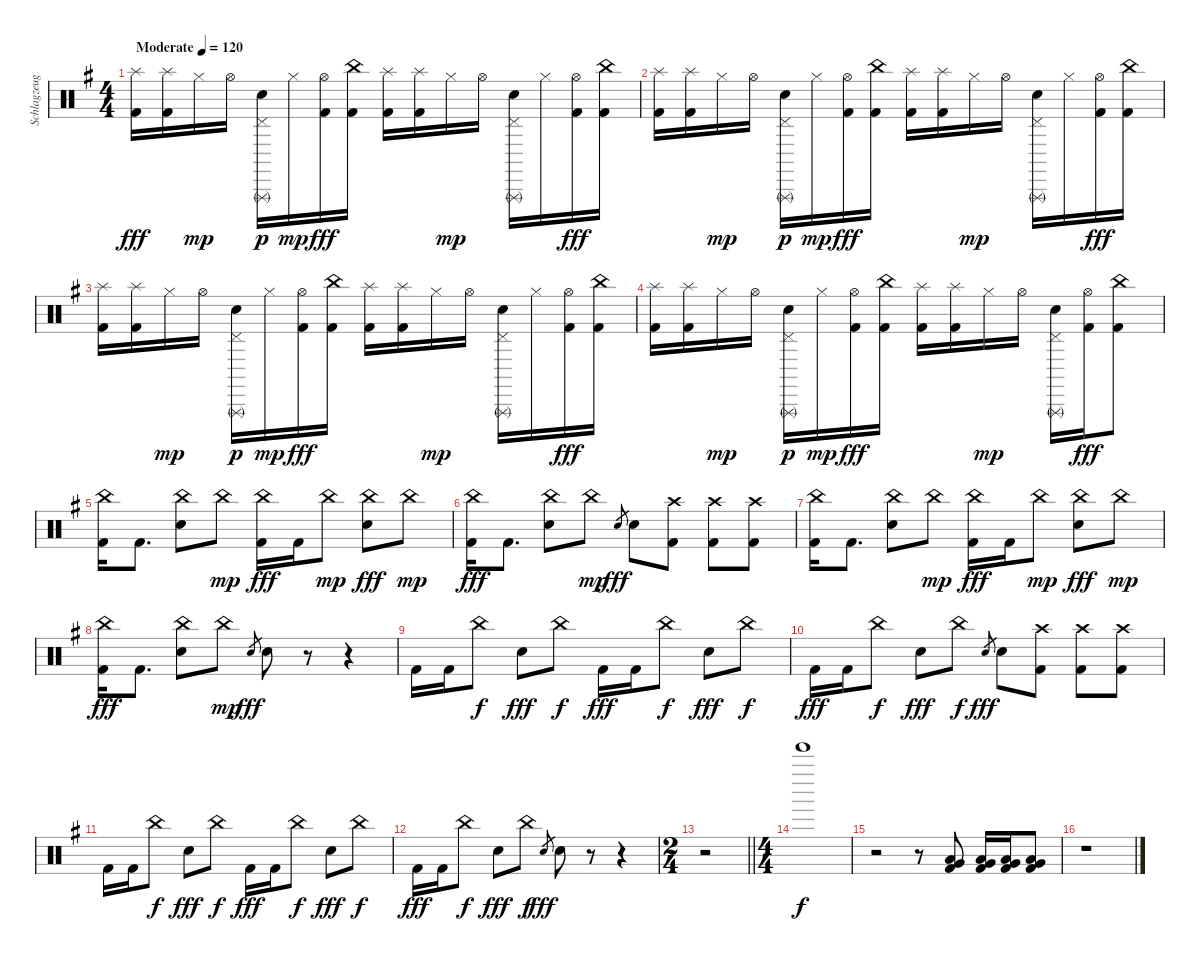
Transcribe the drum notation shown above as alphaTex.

\track ("Schlagzeug" "Schlagzeug") {instrument percussion}
\staff {score}
\articulation defaults
\ts (4 4)
\tempo (120 "Moderate")
\tempo 75
\tempo (120 "Moderate")
\clef neutral
\ks eminor
("Splash (hit)" "Kick (hit) 2").16{dy fff} ("Splash (hit)" "Kick (hit) 2").16 "Hi-Hat (closed)".16{dy mp} "Hi-Hat (open)".16 ("Pedal Hi-Hat (hit)" "Triangle (rnute)" "Electric Snare (hit)").16{dy p} "Hi-Hat (closed)".16{dy mp} ("Hi-Hat (open)" "Kick (hit) 2").16{dy fff} ("China (hit)" "Kick (hit) 2").16 ("Splash (hit)" "Kick (hit) 2").16 ("Splash (hit)" "Kick (hit) 2").16 "Hi-Hat (closed)".16{dy mp} "Hi-Hat (open)".16 ("Pedal Hi-Hat (hit)" "Triangle (rnute)" "Electric Snare (hit)").16 "Hi-Hat (closed)".16 ("Hi-Hat (open)" "Kick (hit) 2").16{dy fff} ("China (hit)" "Kick (hit) 2").16 |
("Splash (hit)" "Kick (hit) 2").16 ("Splash (hit)" "Kick (hit) 2").16 "Hi-Hat (closed)".16{dy mp} "Hi-Hat (open)".16 ("Pedal Hi-Hat (hit)" "Triangle (rnute)" "Electric Snare (hit)").16{dy p} "Hi-Hat (closed)".16{dy mp} ("Hi-Hat (open)" "Kick (hit) 2").16{dy fff} ("China (hit)" "Kick (hit) 2").16 ("Splash (hit)" "Kick (hit) 2").16 ("Splash (hit)" "Kick (hit) 2").16 "Hi-Hat (closed)".16{dy mp} "Hi-Hat (open)".16 ("Pedal Hi-Hat (hit)" "Triangle (rnute)" "Electric Snare (hit)").16 "Hi-Hat (closed)".16 ("Hi-Hat (open)" "Kick (hit) 2").16{dy fff} ("China (hit)" "Kick (hit) 2").16 |
("Splash (hit)" "Kick (hit) 2").16 ("Splash (hit)" "Kick (hit) 2").16 "Hi-Hat (closed)".16{dy mp} "Hi-Hat (open)".16 ("Pedal Hi-Hat (hit)" "Triangle (rnute)" "Electric Snare (hit)").16{dy p} "Hi-Hat (closed)".16{dy mp} ("Hi-Hat (open)" "Kick (hit) 2").16{dy fff} ("China (hit)" "Kick (hit) 2").16 ("Splash (hit)" "Kick (hit) 2").16 ("Splash (hit)" "Kick (hit) 2").16 "Hi-Hat (closed)".16{dy mp} "Hi-Hat (open)".16 ("Pedal Hi-Hat (hit)" "Triangle (rnute)" "Electric Snare (hit)").16 "Hi-Hat (closed)".16 ("Hi-Hat (open)" "Kick (hit) 2").16{dy fff} ("China (hit)" "Kick (hit) 2").16 |
("Splash (hit)" "Kick (hit) 2").16 ("Splash (hit)" "Kick (hit) 2").16 "Hi-Hat (closed)".16{dy mp} "Hi-Hat (open)".16 ("Pedal Hi-Hat (hit)" "Triangle (rnute)" "Electric Snare (hit)").16{dy p} "Hi-Hat (closed)".16{dy mp} ("Hi-Hat (open)" "Kick (hit) 2").16{dy fff} ("China (hit)" "Kick (hit) 2").16 ("Splash (hit)" "Kick (hit) 2").16 ("Splash (hit)" "Kick (hit) 2").16 "Hi-Hat (closed)".16{dy mp} "Hi-Hat (open)".16 ("Pedal Hi-Hat (hit)" "Triangle (rnute)" "Electric Snare (hit)").16 ("Hi-Hat (open)" "Kick (hit) 2").16{dy fff} ("China (hit)" "Kick (hit) 2").8 |
("China (hit)" "Kick (hit) 2").16 "Kick (hit) 2".8{d} ("China (hit)" "Snare (hit) 2").8 "China (hit)".8{dy mp} ("China (hit)" "Kick (hit) 2").16{dy fff} "Kick (hit) 2".16 "China (hit)".8{dy mp} ("China (hit)" "Snare (hit) 2").8{dy fff} "China (hit)".8{dy mp} |
("China (hit)" "Kick (hit) 2").16{dy fff} "Kick (hit) 2".8{d} ("China (hit)" "Snare (hit) 2").8 "China (hit)".8{dy mp} "Snare (hit) 2".8{gr dy fff} "Snare (hit) 2".8 ("Crash high (hit)" "Kick (hit) 2").8 ("Crash high (hit)" "Kick (hit) 2").8 ("Crash high (hit)" "Kick (hit) 2").8 |
("China (hit)" "Kick (hit) 2").16 "Kick (hit) 2".8{d} ("China (hit)" "Snare (hit) 2").8 "China (hit)".8{dy mp} ("China (hit)" "Kick (hit) 2").16{dy fff} "Kick (hit) 2".16 "China (hit)".8{dy mp} ("China (hit)" "Snare (hit) 2").8{dy fff} "China (hit)".8{dy mp} |
("China (hit)" "Kick (hit) 2").16{dy fff} "Kick (hit) 2".8{d} ("China (hit)" "Snare (hit) 2").8 "China (hit)".8{dy mp} "Snare (hit) 2".8{gr dy fff} "Snare (hit) 2".8 r.8 r.4 |
"Kick (hit) 2".16 "Kick (hit) 2".16 "China (hit)".8{dy f} "Snare (hit) 2".8{dy fff} "China (hit)".8{dy f} "Kick (hit) 2".16{dy fff} "Kick (hit) 2".16 "China (hit)".8{dy f} "Snare (hit) 2".8{dy fff} "China (hit)".8{dy f} |
"Kick (hit) 2".16{dy fff} "Kick (hit) 2".16 "China (hit)".8{dy f} "Snare (hit) 2".8{dy fff} "China (hit)".8{dy f} "Snare (hit) 2".8{gr dy fff} "Snare (hit) 2".8 ("Crash high (hit)" "Kick (hit) 2").8 ("Crash high (hit)" "Kick (hit) 2").8 ("Crash high (hit)" "Kick (hit) 2").8 |
"Kick (hit) 2".16 "Kick (hit) 2".16 "China (hit)".8{dy f} "Snare (hit) 2".8{dy fff} "China (hit)".8{dy f} "Kick (hit) 2".16{dy fff} "Kick (hit) 2".16 "China (hit)".8{dy f} "Snare (hit) 2".8{dy fff} "China (hit)".8{dy f} |
"Kick (hit) 2".16{dy fff} "Kick (hit) 2".16 "China (hit)".8{dy f} "Snare (hit) 2".8{dy fff} "China (hit)".8{dy f} "Snare (hit) 2".8{gr dy fff} "Snare (hit) 2".8 r.8 r.4 |
\ts (2 4)
\barLineRight lightlight
r.2 |
\ts (4 4)
"Tinkle Bell (hit)".1{dy f} |
r.2 r.8 ("Low Tom (hit)" "Very Low Tom (hit)" "Kick (hit) 2").8 ("Low Tom (hit)" "Very Low Tom (hit)" "Kick (hit) 2").16 ("Low Tom (hit)" "Very Low Tom (hit)" "Kick (hit) 2").16 ("Low Tom (hit)" "Very Low Tom (hit)" "Kick (hit) 2").8 |
r.1
